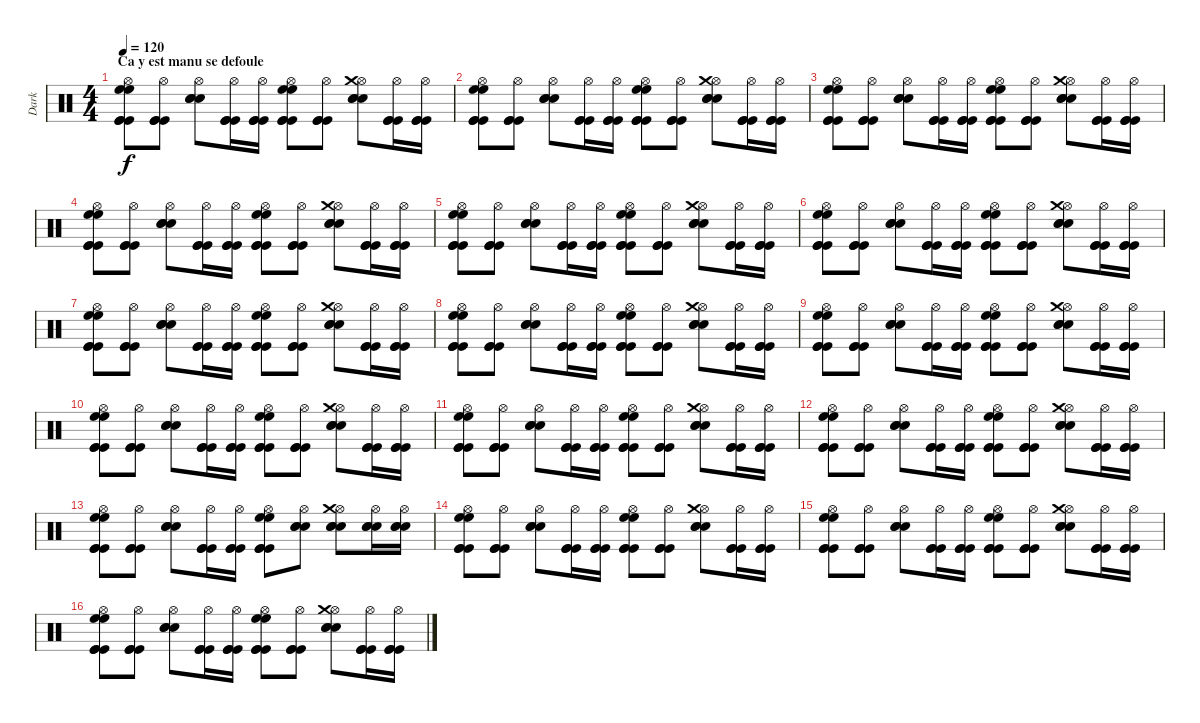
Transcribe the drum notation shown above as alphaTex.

\track ("Dark" "Dark") {instrument percussion}
\staff {score}
\articulation defaults
\ts (4 4)
\section ("" " Ca y est manu se defoule")
\tempo 120
\clef neutral
\ks c
("Hi-Hat (open)" "High Floor Tom (hit)" "High Floor Tom (hit)" "Kick (hit)" "Kick (hit)" "Kick (hit)").8{dy f} ("Hi-Hat (open)" "Kick (hit)" "Kick (hit)" "Kick (hit)").8 ("Hi-Hat (open)" "Snare (hit) 2" "Snare (hit) 2" "Snare (hit) 2").8 ("Hi-Hat (open)" "Kick (hit)" "Kick (hit)" "Kick (hit)").16 ("Hi-Hat (open)" "Kick (hit)" "Kick (hit)" "Kick (hit)").16 ("Hi-Hat (open)" "High Floor Tom (hit)" "High Floor Tom (hit)" "Kick (hit)" "Kick (hit)" "Kick (hit)").8 ("Hi-Hat (open)" "Kick (hit)" "Kick (hit)" "Kick (hit)").8 ("Hi-Hat (open)" "Crash medium (hit)" "Snare (hit) 2" "Snare (hit) 2" "Snare (hit) 2").8 ("Hi-Hat (open)" "Kick (hit)" "Kick (hit)" "Kick (hit)").16 ("Hi-Hat (open)" "Kick (hit)" "Kick (hit)" "Kick (hit)").16 |
("Hi-Hat (open)" "High Floor Tom (hit)" "High Floor Tom (hit)" "Kick (hit)" "Kick (hit)" "Kick (hit)").8 ("Hi-Hat (open)" "Kick (hit)" "Kick (hit)" "Kick (hit)").8 ("Hi-Hat (open)" "Snare (hit) 2" "Snare (hit) 2" "Snare (hit) 2").8 ("Hi-Hat (open)" "Kick (hit)" "Kick (hit)" "Kick (hit)").16 ("Hi-Hat (open)" "Kick (hit)" "Kick (hit)" "Kick (hit)").16 ("Hi-Hat (open)" "High Floor Tom (hit)" "High Floor Tom (hit)" "Kick (hit)" "Kick (hit)" "Kick (hit)").8 ("Hi-Hat (open)" "Kick (hit)" "Kick (hit)" "Kick (hit)").8 ("Hi-Hat (open)" "Crash medium (hit)" "Snare (hit) 2" "Snare (hit) 2" "Snare (hit) 2").8 ("Hi-Hat (open)" "Kick (hit)" "Kick (hit)" "Kick (hit)").16 ("Hi-Hat (open)" "Kick (hit)" "Kick (hit)" "Kick (hit)").16 |
("Hi-Hat (open)" "High Floor Tom (hit)" "High Floor Tom (hit)" "Kick (hit)" "Kick (hit)" "Kick (hit)").8 ("Hi-Hat (open)" "Kick (hit)" "Kick (hit)" "Kick (hit)").8 ("Hi-Hat (open)" "Snare (hit) 2" "Snare (hit) 2" "Snare (hit) 2").8 ("Hi-Hat (open)" "Kick (hit)" "Kick (hit)" "Kick (hit)").16 ("Hi-Hat (open)" "Kick (hit)" "Kick (hit)" "Kick (hit)").16 ("Hi-Hat (open)" "High Floor Tom (hit)" "High Floor Tom (hit)" "Kick (hit)" "Kick (hit)" "Kick (hit)").8 ("Hi-Hat (open)" "Kick (hit)" "Kick (hit)" "Kick (hit)").8 ("Hi-Hat (open)" "Crash medium (hit)" "Snare (hit) 2" "Snare (hit) 2" "Snare (hit) 2").8 ("Hi-Hat (open)" "Kick (hit)" "Kick (hit)" "Kick (hit)").16 ("Hi-Hat (open)" "Kick (hit)" "Kick (hit)" "Kick (hit)").16 |
("Hi-Hat (open)" "High Floor Tom (hit)" "High Floor Tom (hit)" "Kick (hit)" "Kick (hit)" "Kick (hit)").8 ("Hi-Hat (open)" "Kick (hit)" "Kick (hit)" "Kick (hit)").8 ("Hi-Hat (open)" "Snare (hit) 2" "Snare (hit) 2" "Snare (hit) 2").8 ("Hi-Hat (open)" "Kick (hit)" "Kick (hit)" "Kick (hit)").16 ("Hi-Hat (open)" "Kick (hit)" "Kick (hit)" "Kick (hit)").16 ("Hi-Hat (open)" "High Floor Tom (hit)" "High Floor Tom (hit)" "Kick (hit)" "Kick (hit)" "Kick (hit)").8 ("Hi-Hat (open)" "Kick (hit)" "Kick (hit)" "Kick (hit)").8 ("Hi-Hat (open)" "Crash medium (hit)" "Snare (hit) 2" "Snare (hit) 2" "Snare (hit) 2").8 ("Hi-Hat (open)" "Kick (hit)" "Kick (hit)" "Kick (hit)").16 ("Hi-Hat (open)" "Kick (hit)" "Kick (hit)" "Kick (hit)").16 |
("Hi-Hat (open)" "High Floor Tom (hit)" "High Floor Tom (hit)" "Kick (hit)" "Kick (hit)" "Kick (hit)").8 ("Hi-Hat (open)" "Kick (hit)" "Kick (hit)" "Kick (hit)").8 ("Hi-Hat (open)" "Snare (hit) 2" "Snare (hit) 2" "Snare (hit) 2").8 ("Hi-Hat (open)" "Kick (hit)" "Kick (hit)" "Kick (hit)").16 ("Hi-Hat (open)" "Kick (hit)" "Kick (hit)" "Kick (hit)").16 ("Hi-Hat (open)" "High Floor Tom (hit)" "High Floor Tom (hit)" "Kick (hit)" "Kick (hit)" "Kick (hit)").8 ("Hi-Hat (open)" "Kick (hit)" "Kick (hit)" "Kick (hit)").8 ("Hi-Hat (open)" "Crash medium (hit)" "Snare (hit) 2" "Snare (hit) 2" "Snare (hit) 2").8 ("Hi-Hat (open)" "Kick (hit)" "Kick (hit)" "Kick (hit)").16 ("Hi-Hat (open)" "Kick (hit)" "Kick (hit)" "Kick (hit)").16 |
("Hi-Hat (open)" "High Floor Tom (hit)" "High Floor Tom (hit)" "Kick (hit)" "Kick (hit)" "Kick (hit)").8 ("Hi-Hat (open)" "Kick (hit)" "Kick (hit)" "Kick (hit)").8 ("Hi-Hat (open)" "Snare (hit) 2" "Snare (hit) 2" "Snare (hit) 2").8 ("Hi-Hat (open)" "Kick (hit)" "Kick (hit)" "Kick (hit)").16 ("Hi-Hat (open)" "Kick (hit)" "Kick (hit)" "Kick (hit)").16 ("Hi-Hat (open)" "High Floor Tom (hit)" "High Floor Tom (hit)" "Kick (hit)" "Kick (hit)" "Kick (hit)").8 ("Hi-Hat (open)" "Kick (hit)" "Kick (hit)" "Kick (hit)").8 ("Hi-Hat (open)" "Crash medium (hit)" "Snare (hit) 2" "Snare (hit) 2" "Snare (hit) 2").8 ("Hi-Hat (open)" "Kick (hit)" "Kick (hit)" "Kick (hit)").16 ("Hi-Hat (open)" "Kick (hit)" "Kick (hit)" "Kick (hit)").16 |
("Hi-Hat (open)" "High Floor Tom (hit)" "High Floor Tom (hit)" "Kick (hit)" "Kick (hit)" "Kick (hit)").8 ("Hi-Hat (open)" "Kick (hit)" "Kick (hit)" "Kick (hit)").8 ("Hi-Hat (open)" "Snare (hit) 2" "Snare (hit) 2" "Snare (hit) 2").8 ("Hi-Hat (open)" "Kick (hit)" "Kick (hit)" "Kick (hit)").16 ("Hi-Hat (open)" "Kick (hit)" "Kick (hit)" "Kick (hit)").16 ("Hi-Hat (open)" "High Floor Tom (hit)" "High Floor Tom (hit)" "Kick (hit)" "Kick (hit)" "Kick (hit)").8 ("Hi-Hat (open)" "Kick (hit)" "Kick (hit)" "Kick (hit)").8 ("Hi-Hat (open)" "Crash medium (hit)" "Snare (hit) 2" "Snare (hit) 2" "Snare (hit) 2").8 ("Hi-Hat (open)" "Kick (hit)" "Kick (hit)" "Kick (hit)").16 ("Hi-Hat (open)" "Kick (hit)" "Kick (hit)" "Kick (hit)").16 |
("Hi-Hat (open)" "High Floor Tom (hit)" "High Floor Tom (hit)" "Kick (hit)" "Kick (hit)" "Kick (hit)").8 ("Hi-Hat (open)" "Kick (hit)" "Kick (hit)" "Kick (hit)").8 ("Hi-Hat (open)" "Snare (hit) 2" "Snare (hit) 2" "Snare (hit) 2").8 ("Hi-Hat (open)" "Kick (hit)" "Kick (hit)" "Kick (hit)").16 ("Hi-Hat (open)" "Kick (hit)" "Kick (hit)" "Kick (hit)").16 ("Hi-Hat (open)" "High Floor Tom (hit)" "High Floor Tom (hit)" "Kick (hit)" "Kick (hit)" "Kick (hit)").8 ("Hi-Hat (open)" "Kick (hit)" "Kick (hit)" "Kick (hit)").8 ("Hi-Hat (open)" "Crash medium (hit)" "Snare (hit) 2" "Snare (hit) 2" "Snare (hit) 2").8 ("Hi-Hat (open)" "Kick (hit)" "Kick (hit)" "Kick (hit)").16 ("Hi-Hat (open)" "Kick (hit)" "Kick (hit)" "Kick (hit)").16 |
("Hi-Hat (open)" "High Floor Tom (hit)" "High Floor Tom (hit)" "Kick (hit)" "Kick (hit)" "Kick (hit)").8 ("Hi-Hat (open)" "Kick (hit)" "Kick (hit)" "Kick (hit)").8 ("Hi-Hat (open)" "Snare (hit) 2" "Snare (hit) 2" "Snare (hit) 2").8 ("Hi-Hat (open)" "Kick (hit)" "Kick (hit)" "Kick (hit)").16 ("Hi-Hat (open)" "Kick (hit)" "Kick (hit)" "Kick (hit)").16 ("Hi-Hat (open)" "High Floor Tom (hit)" "High Floor Tom (hit)" "Kick (hit)" "Kick (hit)" "Kick (hit)").8 ("Hi-Hat (open)" "Kick (hit)" "Kick (hit)" "Kick (hit)").8 ("Hi-Hat (open)" "Crash medium (hit)" "Snare (hit) 2" "Snare (hit) 2" "Snare (hit) 2").8 ("Hi-Hat (open)" "Kick (hit)" "Kick (hit)" "Kick (hit)").16 ("Hi-Hat (open)" "Kick (hit)" "Kick (hit)" "Kick (hit)").16 |
("Hi-Hat (open)" "High Floor Tom (hit)" "High Floor Tom (hit)" "Kick (hit)" "Kick (hit)" "Kick (hit)").8 ("Hi-Hat (open)" "Kick (hit)" "Kick (hit)" "Kick (hit)").8 ("Hi-Hat (open)" "Snare (hit) 2" "Snare (hit) 2" "Snare (hit) 2").8 ("Hi-Hat (open)" "Kick (hit)" "Kick (hit)" "Kick (hit)").16 ("Hi-Hat (open)" "Kick (hit)" "Kick (hit)" "Kick (hit)").16 ("Hi-Hat (open)" "High Floor Tom (hit)" "High Floor Tom (hit)" "Kick (hit)" "Kick (hit)" "Kick (hit)").8 ("Hi-Hat (open)" "Kick (hit)" "Kick (hit)" "Kick (hit)").8 ("Hi-Hat (open)" "Crash medium (hit)" "Snare (hit) 2" "Snare (hit) 2" "Snare (hit) 2").8 ("Hi-Hat (open)" "Kick (hit)" "Kick (hit)" "Kick (hit)").16 ("Hi-Hat (open)" "Kick (hit)" "Kick (hit)" "Kick (hit)").16 |
("Hi-Hat (open)" "High Floor Tom (hit)" "High Floor Tom (hit)" "Kick (hit)" "Kick (hit)" "Kick (hit)").8 ("Hi-Hat (open)" "Kick (hit)" "Kick (hit)" "Kick (hit)").8 ("Hi-Hat (open)" "Snare (hit) 2" "Snare (hit) 2" "Snare (hit) 2").8 ("Hi-Hat (open)" "Kick (hit)" "Kick (hit)" "Kick (hit)").16 ("Hi-Hat (open)" "Kick (hit)" "Kick (hit)" "Kick (hit)").16 ("Hi-Hat (open)" "High Floor Tom (hit)" "High Floor Tom (hit)" "Kick (hit)" "Kick (hit)" "Kick (hit)").8 ("Hi-Hat (open)" "Kick (hit)" "Kick (hit)" "Kick (hit)").8 ("Hi-Hat (open)" "Crash medium (hit)" "Snare (hit) 2" "Snare (hit) 2" "Snare (hit) 2").8 ("Hi-Hat (open)" "Kick (hit)" "Kick (hit)" "Kick (hit)").16 ("Hi-Hat (open)" "Kick (hit)" "Kick (hit)" "Kick (hit)").16 |
("Hi-Hat (open)" "High Floor Tom (hit)" "High Floor Tom (hit)" "Kick (hit)" "Kick (hit)" "Kick (hit)").8 ("Hi-Hat (open)" "Kick (hit)" "Kick (hit)" "Kick (hit)").8 ("Hi-Hat (open)" "Snare (hit) 2" "Snare (hit) 2" "Snare (hit) 2").8 ("Hi-Hat (open)" "Kick (hit)" "Kick (hit)" "Kick (hit)").16 ("Hi-Hat (open)" "Kick (hit)" "Kick (hit)" "Kick (hit)").16 ("Hi-Hat (open)" "High Floor Tom (hit)" "High Floor Tom (hit)" "Kick (hit)" "Kick (hit)" "Kick (hit)").8 ("Hi-Hat (open)" "Kick (hit)" "Kick (hit)" "Kick (hit)").8 ("Hi-Hat (open)" "Crash medium (hit)" "Snare (hit) 2" "Snare (hit) 2" "Snare (hit) 2").8 ("Hi-Hat (open)" "Kick (hit)" "Kick (hit)" "Kick (hit)").16 ("Hi-Hat (open)" "Kick (hit)" "Kick (hit)" "Kick (hit)").16 |
("Hi-Hat (open)" "High Floor Tom (hit)" "High Floor Tom (hit)" "Kick (hit)" "Kick (hit)" "Kick (hit)").8 ("Hi-Hat (open)" "Kick (hit)" "Kick (hit)" "Kick (hit)").8 ("Hi-Hat (open)" "Snare (hit) 2" "Snare (hit) 2" "Snare (hit) 2").8 ("Hi-Hat (open)" "Kick (hit)" "Kick (hit)" "Kick (hit)").16 ("Hi-Hat (open)" "Kick (hit)" "Kick (hit)" "Kick (hit)").16 ("Hi-Hat (open)" "High Floor Tom (hit)" "High Floor Tom (hit)" "Kick (hit)" "Kick (hit)" "Kick (hit)").8 ("Hi-Hat (open)" "Snare (hit) 2" "Snare (hit) 2" "Snare (hit) 2").8 ("Hi-Hat (open)" "Crash medium (hit)" "Snare (hit) 2" "Snare (hit) 2" "Snare (hit) 2").8 ("Hi-Hat (open)" "Snare (hit) 2" "Snare (hit) 2" "Snare (hit) 2").16 ("Hi-Hat (open)" "Snare (hit) 2" "Snare (hit) 2" "Snare (hit) 2").16 |
("Hi-Hat (open)" "High Floor Tom (hit)" "High Floor Tom (hit)" "Kick (hit)" "Kick (hit)" "Kick (hit)").8 ("Hi-Hat (open)" "Kick (hit)" "Kick (hit)" "Kick (hit)").8 ("Hi-Hat (open)" "Snare (hit) 2" "Snare (hit) 2" "Snare (hit) 2").8 ("Hi-Hat (open)" "Kick (hit)" "Kick (hit)" "Kick (hit)").16 ("Hi-Hat (open)" "Kick (hit)" "Kick (hit)" "Kick (hit)").16 ("Hi-Hat (open)" "High Floor Tom (hit)" "High Floor Tom (hit)" "Kick (hit)" "Kick (hit)" "Kick (hit)").8 ("Hi-Hat (open)" "Kick (hit)" "Kick (hit)" "Kick (hit)").8 ("Hi-Hat (open)" "Crash medium (hit)" "Snare (hit) 2" "Snare (hit) 2" "Snare (hit) 2").8 ("Hi-Hat (open)" "Kick (hit)" "Kick (hit)" "Kick (hit)").16 ("Hi-Hat (open)" "Kick (hit)" "Kick (hit)" "Kick (hit)").16 |
("Hi-Hat (open)" "High Floor Tom (hit)" "High Floor Tom (hit)" "Kick (hit)" "Kick (hit)" "Kick (hit)").8 ("Hi-Hat (open)" "Kick (hit)" "Kick (hit)" "Kick (hit)").8 ("Hi-Hat (open)" "Snare (hit) 2" "Snare (hit) 2" "Snare (hit) 2").8 ("Hi-Hat (open)" "Kick (hit)" "Kick (hit)" "Kick (hit)").16 ("Hi-Hat (open)" "Kick (hit)" "Kick (hit)" "Kick (hit)").16 ("Hi-Hat (open)" "High Floor Tom (hit)" "High Floor Tom (hit)" "Kick (hit)" "Kick (hit)" "Kick (hit)").8 ("Hi-Hat (open)" "Kick (hit)" "Kick (hit)" "Kick (hit)").8 ("Hi-Hat (open)" "Crash medium (hit)" "Snare (hit) 2" "Snare (hit) 2" "Snare (hit) 2").8 ("Hi-Hat (open)" "Kick (hit)" "Kick (hit)" "Kick (hit)").16 ("Hi-Hat (open)" "Kick (hit)" "Kick (hit)" "Kick (hit)").16 |
("Hi-Hat (open)" "High Floor Tom (hit)" "High Floor Tom (hit)" "Kick (hit)" "Kick (hit)" "Kick (hit)").8 ("Hi-Hat (open)" "Kick (hit)" "Kick (hit)" "Kick (hit)").8 ("Hi-Hat (open)" "Snare (hit) 2" "Snare (hit) 2" "Snare (hit) 2").8 ("Hi-Hat (open)" "Kick (hit)" "Kick (hit)" "Kick (hit)").16 ("Hi-Hat (open)" "Kick (hit)" "Kick (hit)" "Kick (hit)").16 ("Hi-Hat (open)" "High Floor Tom (hit)" "High Floor Tom (hit)" "Kick (hit)" "Kick (hit)" "Kick (hit)").8 ("Hi-Hat (open)" "Kick (hit)" "Kick (hit)" "Kick (hit)").8 ("Hi-Hat (open)" "Crash medium (hit)" "Snare (hit) 2" "Snare (hit) 2" "Snare (hit) 2").8 ("Hi-Hat (open)" "Kick (hit)" "Kick (hit)" "Kick (hit)").16 ("Hi-Hat (open)" "Kick (hit)" "Kick (hit)" "Kick (hit)").16
